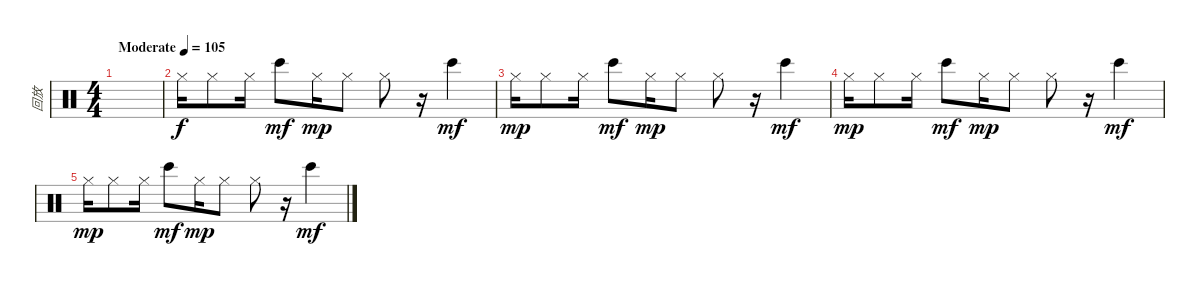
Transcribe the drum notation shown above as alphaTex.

\track ("回放" "回放") {instrument percussion}
\staff {score}
\articulation defaults
\ts (4 4)
\tempo (105 "Moderate")
\clef neutral
\ks c
|
"Hi-Hat (closed)".16 "Hi-Hat (closed)".8 "Hi-Hat (closed)".16 "Bongo High (hit)".8{dy mf} "Hi-Hat (closed)".16{dy mp} "Hi-Hat (closed)".8 "Hi-Hat (closed)".8 r.16 "Bongo High (hit)".4{dy mf} |
"Hi-Hat (closed)".16{dy mp} "Hi-Hat (closed)".8 "Hi-Hat (closed)".16 "Bongo High (hit)".8{dy mf} "Hi-Hat (closed)".16{dy mp} "Hi-Hat (closed)".8 "Hi-Hat (closed)".8 r.16 "Bongo High (hit)".4{dy mf} |
"Hi-Hat (closed)".16{dy mp} "Hi-Hat (closed)".8 "Hi-Hat (closed)".16 "Bongo High (hit)".8{dy mf} "Hi-Hat (closed)".16{dy mp} "Hi-Hat (closed)".8 "Hi-Hat (closed)".8 r.16 "Bongo High (hit)".4{dy mf} |
"Hi-Hat (closed)".16{dy mp} "Hi-Hat (closed)".8 "Hi-Hat (closed)".16 "Bongo High (hit)".8{dy mf} "Hi-Hat (closed)".16{dy mp} "Hi-Hat (closed)".8 "Hi-Hat (closed)".8 r.16 "Bongo High (hit)".4{dy mf}
